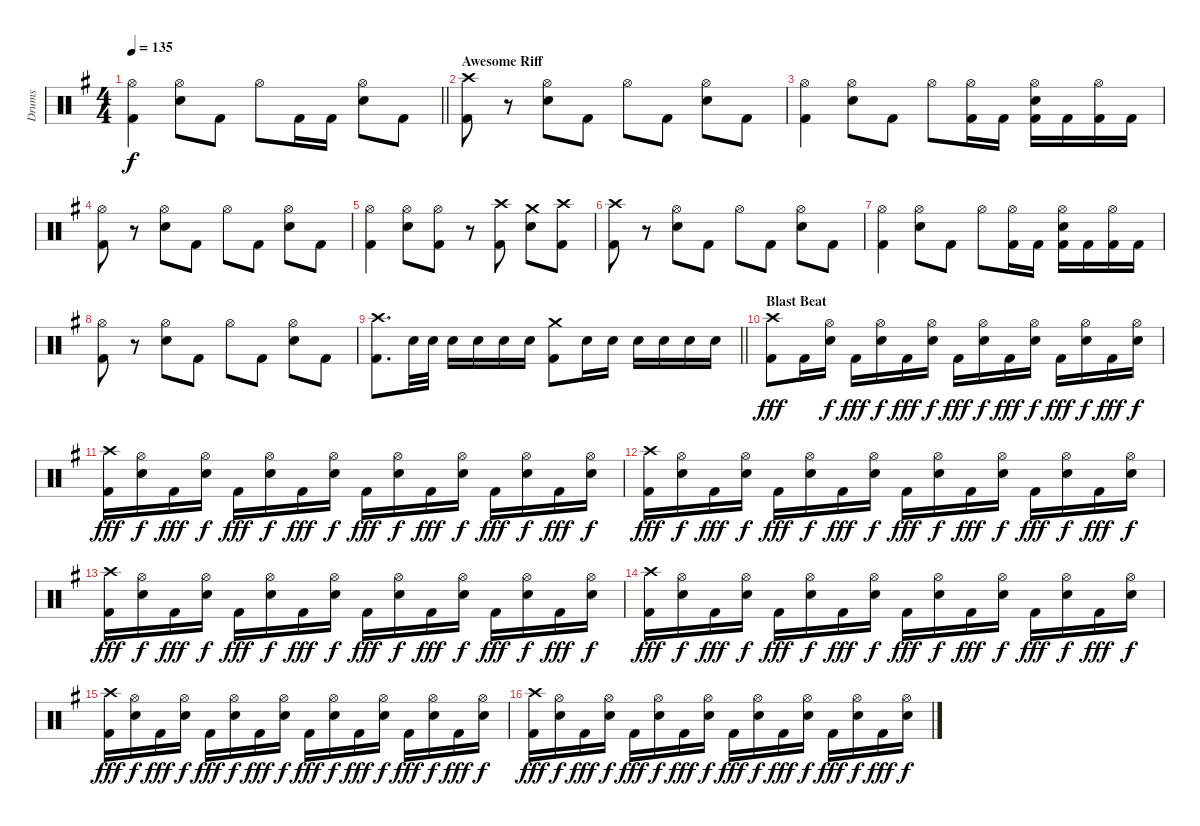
\track ("Drums" "Drums") {instrument percussion}
\staff {score}
\articulation defaults
\ts (4 4)
\tempo 135
\clef neutral
\barLineRight lightlight
\ks g
("Hi-Hat (open)" "Kick (hit) 2").4{dy f} ("Hi-Hat (open)" "Snare (hit) 2").8 "Kick (hit) 2".8 "Hi-Hat (open)".8 "Kick (hit) 2".16 "Kick (hit) 2".16 ("Hi-Hat (open)" "Snare (hit) 2").8 "Kick (hit) 2".8 |
\section ("" "Awesome Riff")
("Crash high (hit)" "Kick (hit) 2").8 r.8 ("Hi-Hat (open)" "Snare (hit) 2").8 "Kick (hit) 2".8 "Hi-Hat (open)".8 "Kick (hit) 2".8 ("Hi-Hat (open)" "Snare (hit) 2").8 "Kick (hit) 2".8 |
("Hi-Hat (open)" "Kick (hit) 2").4 ("Hi-Hat (open)" "Snare (hit) 2").8 "Kick (hit) 2".8 "Hi-Hat (open)".8 ("Hi-Hat (open)" "Kick (hit) 2").16 "Kick (hit) 2".16 ("Hi-Hat (open)" "Snare (hit) 2" "Kick (hit) 2").16 "Kick (hit) 2".16 ("Hi-Hat (open)" "Kick (hit) 2").16 "Kick (hit) 2".16 |
("Hi-Hat (open)" "Kick (hit) 2").8 r.8 ("Hi-Hat (open)" "Snare (hit) 2").8 "Kick (hit) 2".8 "Hi-Hat (open)".8 "Kick (hit) 2".8 ("Hi-Hat (open)" "Snare (hit) 2").8 "Kick (hit) 2".8 |
("Hi-Hat (open)" "Kick (hit) 2").4 ("Hi-Hat (open)" "Snare (hit) 2").8 ("Hi-Hat (open)" "Kick (hit) 2").8 r.8 ("Crash high (hit)" "Kick (hit) 2").8 ("Crash medium (hit)" "Snare (hit) 2").8 ("Crash high (hit)" "Kick (hit) 2").8 |
("Crash high (hit)" "Kick (hit) 2").8 r.8 ("Hi-Hat (open)" "Snare (hit) 2").8 "Kick (hit) 2".8 "Hi-Hat (open)".8 "Kick (hit) 2".8 ("Hi-Hat (open)" "Snare (hit) 2").8 "Kick (hit) 2".8 |
("Hi-Hat (open)" "Kick (hit) 2").4 ("Hi-Hat (open)" "Snare (hit) 2").8 "Kick (hit) 2".8 "Hi-Hat (open)".8 ("Hi-Hat (open)" "Kick (hit) 2").16 "Kick (hit) 2".16 ("Hi-Hat (open)" "Snare (hit) 2" "Kick (hit) 2").16 "Kick (hit) 2".16 ("Hi-Hat (open)" "Kick (hit) 2").16 "Kick (hit) 2".16 |
("Hi-Hat (open)" "Kick (hit) 2").8 r.8 ("Hi-Hat (open)" "Snare (hit) 2").8 "Kick (hit) 2".8 "Hi-Hat (open)".8 "Kick (hit) 2".8 ("Hi-Hat (open)" "Snare (hit) 2").8 "Kick (hit) 2".8 |
\barLineRight lightlight
("Crash high (hit)" "Kick (hit) 2").8{d} "Snare (hit) 2".32 "Snare (hit) 2".32 "Snare (hit) 2".16 "Snare (hit) 2".16 "Snare (hit) 2".16 "Snare (hit) 2".16 ("Crash medium (hit)" "Kick (hit) 2").8 "Snare (hit) 2".16 "Snare (hit) 2".16 "Snare (hit) 2".16 "Snare (hit) 2".16 "Snare (hit) 2".16 "Snare (hit) 2".16 |
\section ("" "Blast Beat")
("Crash high (hit)" "Kick (hit) 2").8{dy fff} "Kick (hit) 2".16 ("Hi-Hat (open)" "Snare (hit) 2").16{dy f} "Kick (hit) 2".16{dy fff} ("Hi-Hat (open)" "Snare (hit) 2").16{dy f} "Kick (hit) 2".16{dy fff} ("Hi-Hat (open)" "Snare (hit) 2").16{dy f} "Kick (hit) 2".16{dy fff} ("Hi-Hat (open)" "Snare (hit) 2").16{dy f} "Kick (hit) 2".16{dy fff} ("Hi-Hat (open)" "Snare (hit) 2").16{dy f} "Kick (hit) 2".16{dy fff} ("Hi-Hat (open)" "Snare (hit) 2").16{dy f} "Kick (hit) 2".16{dy fff} ("Hi-Hat (open)" "Snare (hit) 2").16{dy f} |
("Crash high (hit)" "Kick (hit) 2").16{dy fff} ("Hi-Hat (open)" "Snare (hit) 2").16{dy f} "Kick (hit) 2".16{dy fff} ("Hi-Hat (open)" "Snare (hit) 2").16{dy f} "Kick (hit) 2".16{dy fff} ("Hi-Hat (open)" "Snare (hit) 2").16{dy f} "Kick (hit) 2".16{dy fff} ("Hi-Hat (open)" "Snare (hit) 2").16{dy f} "Kick (hit) 2".16{dy fff} ("Hi-Hat (open)" "Snare (hit) 2").16{dy f} "Kick (hit) 2".16{dy fff} ("Hi-Hat (open)" "Snare (hit) 2").16{dy f} "Kick (hit) 2".16{dy fff} ("Hi-Hat (open)" "Snare (hit) 2").16{dy f} "Kick (hit) 2".16{dy fff} ("Hi-Hat (open)" "Snare (hit) 2").16{dy f} |
("Crash high (hit)" "Kick (hit) 2").16{dy fff} ("Hi-Hat (open)" "Snare (hit) 2").16{dy f} "Kick (hit) 2".16{dy fff} ("Hi-Hat (open)" "Snare (hit) 2").16{dy f} "Kick (hit) 2".16{dy fff} ("Hi-Hat (open)" "Snare (hit) 2").16{dy f} "Kick (hit) 2".16{dy fff} ("Hi-Hat (open)" "Snare (hit) 2").16{dy f} "Kick (hit) 2".16{dy fff} ("Hi-Hat (open)" "Snare (hit) 2").16{dy f} "Kick (hit) 2".16{dy fff} ("Hi-Hat (open)" "Snare (hit) 2").16{dy f} "Kick (hit) 2".16{dy fff} ("Hi-Hat (open)" "Snare (hit) 2").16{dy f} "Kick (hit) 2".16{dy fff} ("Hi-Hat (open)" "Snare (hit) 2").16{dy f} |
("Crash high (hit)" "Kick (hit) 2").16{dy fff} ("Hi-Hat (open)" "Snare (hit) 2").16{dy f} "Kick (hit) 2".16{dy fff} ("Hi-Hat (open)" "Snare (hit) 2").16{dy f} "Kick (hit) 2".16{dy fff} ("Hi-Hat (open)" "Snare (hit) 2").16{dy f} "Kick (hit) 2".16{dy fff} ("Hi-Hat (open)" "Snare (hit) 2").16{dy f} "Kick (hit) 2".16{dy fff} ("Hi-Hat (open)" "Snare (hit) 2").16{dy f} "Kick (hit) 2".16{dy fff} ("Hi-Hat (open)" "Snare (hit) 2").16{dy f} "Kick (hit) 2".16{dy fff} ("Hi-Hat (open)" "Snare (hit) 2").16{dy f} "Kick (hit) 2".16{dy fff} ("Hi-Hat (open)" "Snare (hit) 2").16{dy f} |
("Crash high (hit)" "Kick (hit) 2").16{dy fff} ("Hi-Hat (open)" "Snare (hit) 2").16{dy f} "Kick (hit) 2".16{dy fff} ("Hi-Hat (open)" "Snare (hit) 2").16{dy f} "Kick (hit) 2".16{dy fff} ("Hi-Hat (open)" "Snare (hit) 2").16{dy f} "Kick (hit) 2".16{dy fff} ("Hi-Hat (open)" "Snare (hit) 2").16{dy f} "Kick (hit) 2".16{dy fff} ("Hi-Hat (open)" "Snare (hit) 2").16{dy f} "Kick (hit) 2".16{dy fff} ("Hi-Hat (open)" "Snare (hit) 2").16{dy f} "Kick (hit) 2".16{dy fff} ("Hi-Hat (open)" "Snare (hit) 2").16{dy f} "Kick (hit) 2".16{dy fff} ("Hi-Hat (open)" "Snare (hit) 2").16{dy f} |
("Crash high (hit)" "Kick (hit) 2").16{dy fff} ("Hi-Hat (open)" "Snare (hit) 2").16{dy f} "Kick (hit) 2".16{dy fff} ("Hi-Hat (open)" "Snare (hit) 2").16{dy f} "Kick (hit) 2".16{dy fff} ("Hi-Hat (open)" "Snare (hit) 2").16{dy f} "Kick (hit) 2".16{dy fff} ("Hi-Hat (open)" "Snare (hit) 2").16{dy f} "Kick (hit) 2".16{dy fff} ("Hi-Hat (open)" "Snare (hit) 2").16{dy f} "Kick (hit) 2".16{dy fff} ("Hi-Hat (open)" "Snare (hit) 2").16{dy f} "Kick (hit) 2".16{dy fff} ("Hi-Hat (open)" "Snare (hit) 2").16{dy f} "Kick (hit) 2".16{dy fff} ("Hi-Hat (open)" "Snare (hit) 2").16{dy f} |
("Crash high (hit)" "Kick (hit) 2").16{dy fff} ("Hi-Hat (open)" "Snare (hit) 2").16{dy f} "Kick (hit) 2".16{dy fff} ("Hi-Hat (open)" "Snare (hit) 2").16{dy f} "Kick (hit) 2".16{dy fff} ("Hi-Hat (open)" "Snare (hit) 2").16{dy f} "Kick (hit) 2".16{dy fff} ("Hi-Hat (open)" "Snare (hit) 2").16{dy f} "Kick (hit) 2".16{dy fff} ("Hi-Hat (open)" "Snare (hit) 2").16{dy f} "Kick (hit) 2".16{dy fff} ("Hi-Hat (open)" "Snare (hit) 2").16{dy f} "Kick (hit) 2".16{dy fff} ("Hi-Hat (open)" "Snare (hit) 2").16{dy f} "Kick (hit) 2".16{dy fff} ("Hi-Hat (open)" "Snare (hit) 2").16{dy f}
